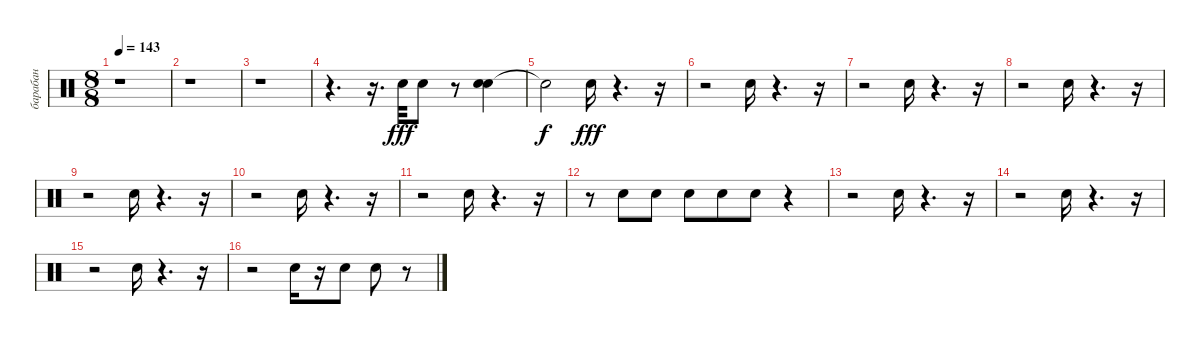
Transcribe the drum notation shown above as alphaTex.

\track ("барабан" "барабан") {instrument percussion}
\staff {score}
\articulation defaults
\ts (8 8)
\tempo 143
\clef neutral
\ks c
r.1{dy fff} |
r.1 |
r.1 |
r.4{d} r.16{d} "Snare (hit) 2".32 "Snare (hit) 2".8 r.8 ("Snare (hit) 2" "Snare (hit) 2").4 |
"Snare (hit)"{t}.2{dy f} "Snare (hit) 2".16{dy fff} r.4{d} r.16 |
r.2 "Snare (hit) 2".16 r.4{d} r.16 |
r.2 "Snare (hit) 2".16 r.4{d} r.16 |
r.2 "Snare (hit) 2".16 r.4{d} r.16 |
r.2 "Snare (hit) 2".16 r.4{d} r.16 |
r.2 "Snare (hit) 2".16 r.4{d} r.16 |
r.2 "Snare (hit) 2".16 r.4{d} r.16 |
r.8 "Snare (hit) 2".8 "Snare (hit) 2".8 "Snare (hit) 2".8 "Snare (hit) 2".8 "Snare (hit) 2".8 r.4 |
r.2 "Snare (hit) 2".16 r.4{d} r.16 |
r.2 "Snare (hit) 2".16 r.4{d} r.16 |
r.2 "Snare (hit) 2".16 r.4{d} r.16 |
r.2 "Snare (hit) 2".16 r.16 "Snare (hit) 2".8 "Snare (hit) 2".8 r.8
